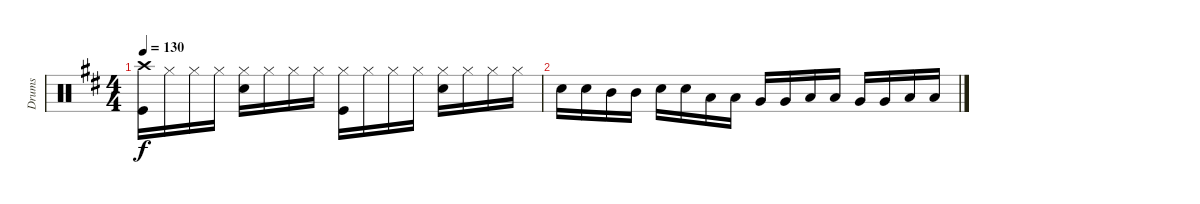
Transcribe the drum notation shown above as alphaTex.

\track ("Drums" "Drums") {instrument percussion}
\staff {score}
\articulation defaults
\ts (4 4)
\tempo 130
\clef neutral
\ks d
("Crash high (hit)" "Kick (hit)").16{dy f} "Hi-Hat (closed)".16 "Hi-Hat (closed)".16 "Hi-Hat (closed)".16 ("Hi-Hat (closed)" "Snare (hit) 2").16 "Hi-Hat (closed)".16 "Hi-Hat (closed)".16 "Hi-Hat (closed)".16 ("Hi-Hat (closed)" "Kick (hit)").16 "Hi-Hat (closed)".16 "Hi-Hat (closed)".16 "Hi-Hat (closed)".16 ("Hi-Hat (closed)" "Snare (hit) 2").16 "Hi-Hat (closed)".16 "Hi-Hat (closed)".16 "Hi-Hat (closed)".16 |
"Snare (hit) 2".16 "Snare (hit) 2".16 "Mid Tom (hit)".16 "Mid Tom (hit)".16 "Snare (hit) 2".16 "Snare (hit) 2".16 "Low Tom (hit)".16 "Low Tom (hit)".16 "Very Low Tom (hit)".16 "Very Low Tom (hit)".16 "Low Floor Tom (hit)".16 "Low Floor Tom (hit)".16 "Very Low Tom (hit)".16 "Very Low Tom (hit)".16 "Low Floor Tom (hit)".16 "Low Floor Tom (hit)".16
